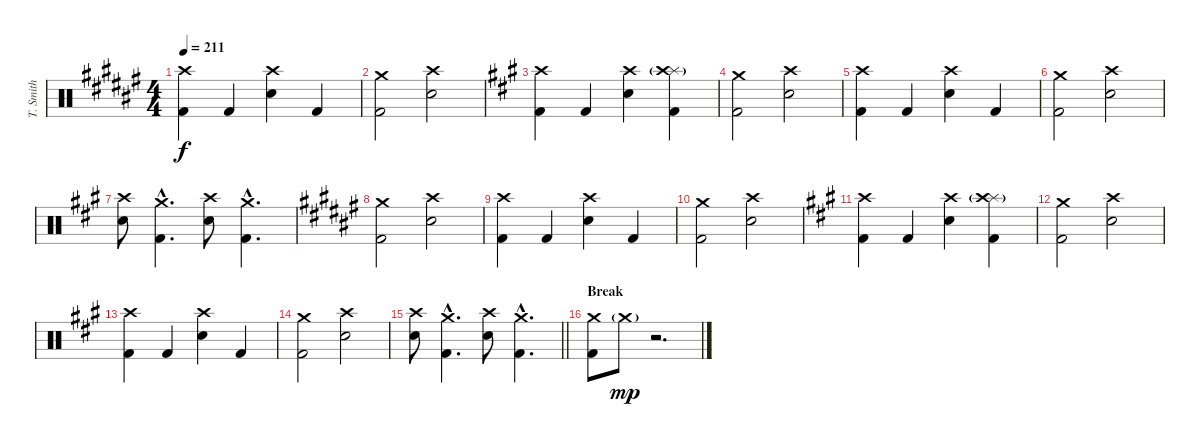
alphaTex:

\track ("T. Smith" "T. Smith") {instrument percussion}
\staff {score}
\articulation defaults
\ts (4 4)
\tempo 211
\clef neutral
\ks d#minor
("Crash high (hit)" "Kick (hit) 2").4{dy f} "Kick (hit) 2".4 ("Crash high (hit)" "Electric Snare (hit)").4 "Kick (hit) 2".4 |
("Crash medium (hit)" "Kick (hit) 2").2 ("Crash high (hit)" "Electric Snare (hit)").2 |
\ks f#minor
("Crash high (hit)" "Kick (hit) 2").4 "Kick (hit) 2".4 ("Crash high (hit)" "Electric Snare (hit)").4 ("Splash (hit)" "Crash high (hit)"{g} "Kick (hit) 2").4 |
("Crash medium (hit)" "Kick (hit) 2").2 ("Crash high (hit)" "Electric Snare (hit)").2 |
("Crash high (hit)" "Kick (hit) 2").4 "Kick (hit) 2".4 ("Crash high (hit)" "Electric Snare (hit)").4 "Kick (hit) 2".4 |
("Crash medium (hit)" "Kick (hit) 2").2 ("Crash high (hit)" "Electric Snare (hit)").2 |
("Crash high (hit)" "Electric Snare (hit)").8 ("Crash medium (hit)"{hac} "Kick (hit) 2"{hac}).4{d} ("Crash high (hit)" "Electric Snare (hit)").8 ("Crash medium (hit)"{hac} "Kick (hit) 2"{hac}).4{d} |
\ks d#minor
("Crash medium (hit)" "Kick (hit) 2").2 ("Crash high (hit)" "Electric Snare (hit)").2 |
("Crash high (hit)" "Kick (hit) 2").4 "Kick (hit) 2".4 ("Crash high (hit)" "Electric Snare (hit)").4 "Kick (hit) 2".4 |
("Crash medium (hit)" "Kick (hit) 2").2 ("Crash high (hit)" "Electric Snare (hit)").2 |
\ks f#minor
("Crash high (hit)" "Kick (hit) 2").4 "Kick (hit) 2".4 ("Crash high (hit)" "Electric Snare (hit)").4 ("Splash (hit)" "Crash high (hit)"{g} "Kick (hit) 2").4 |
("Crash medium (hit)" "Kick (hit) 2").2 ("Crash high (hit)" "Electric Snare (hit)").2 |
("Crash high (hit)" "Kick (hit) 2").4 "Kick (hit) 2".4 ("Crash high (hit)" "Electric Snare (hit)").4 "Kick (hit) 2".4 |
("Crash medium (hit)" "Kick (hit) 2").2 ("Crash high (hit)" "Electric Snare (hit)").2 |
\barLineRight lightlight
("Crash high (hit)" "Electric Snare (hit)").8 ("Crash medium (hit)"{hac} "Kick (hit) 2"{hac}).4{d} ("Crash high (hit)" "Electric Snare (hit)").8 ("Crash medium (hit)"{hac} "Kick (hit) 2"{hac}).4{d} |
\section ("" "Break")
("Crash medium (hit)" "Kick (hit) 2").8 "Crash medium (hit)"{g}.8{dy mp volume 4} r.2{d}
